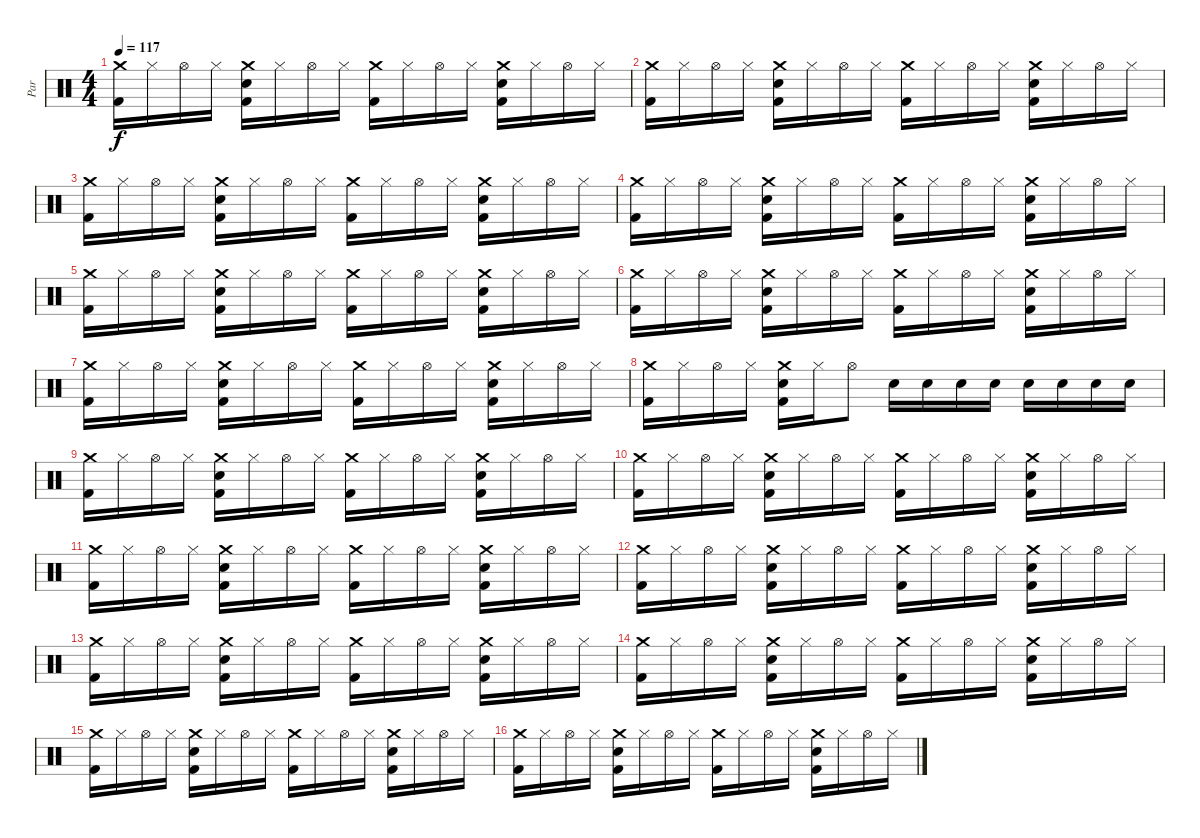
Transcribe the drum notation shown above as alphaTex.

\track ("Par" "Par") {instrument percussion}
\staff {score}
\articulation defaults
\ts (4 4)
\tempo 117
\clef neutral
\ks c
("Crash medium (hit)" "Kick (hit) 2").16{dy f} "Hi-Hat (closed)".16 "Hi-Hat (open)".16 "Hi-Hat (closed)".16 ("Crash medium (hit)" "Snare (hit) 2" "Kick (hit) 2").16 "Hi-Hat (closed)".16 "Hi-Hat (open)".16 "Hi-Hat (closed)".16 ("Crash medium (hit)" "Kick (hit) 2").16 "Hi-Hat (closed)".16 "Hi-Hat (open)".16 "Hi-Hat (closed)".16 ("Crash medium (hit)" "Snare (hit) 2" "Kick (hit) 2").16 "Hi-Hat (closed)".16 "Hi-Hat (open)".16 "Hi-Hat (closed)".16 |
("Crash medium (hit)" "Kick (hit) 2").16 "Hi-Hat (closed)".16 "Hi-Hat (open)".16 "Hi-Hat (closed)".16 ("Crash medium (hit)" "Snare (hit) 2" "Kick (hit) 2").16 "Hi-Hat (closed)".16 "Hi-Hat (open)".16 "Hi-Hat (closed)".16 ("Crash medium (hit)" "Kick (hit) 2").16 "Hi-Hat (closed)".16 "Hi-Hat (open)".16 "Hi-Hat (closed)".16 ("Crash medium (hit)" "Snare (hit) 2" "Kick (hit) 2").16 "Hi-Hat (closed)".16 "Hi-Hat (open)".16 "Hi-Hat (closed)".16 |
("Crash medium (hit)" "Kick (hit) 2").16 "Hi-Hat (closed)".16 "Hi-Hat (open)".16 "Hi-Hat (closed)".16 ("Crash medium (hit)" "Snare (hit) 2" "Kick (hit) 2").16 "Hi-Hat (closed)".16 "Hi-Hat (open)".16 "Hi-Hat (closed)".16 ("Crash medium (hit)" "Kick (hit) 2").16 "Hi-Hat (closed)".16 "Hi-Hat (open)".16 "Hi-Hat (closed)".16 ("Crash medium (hit)" "Snare (hit) 2" "Kick (hit) 2").16 "Hi-Hat (closed)".16 "Hi-Hat (open)".16 "Hi-Hat (closed)".16 |
("Crash medium (hit)" "Kick (hit) 2").16 "Hi-Hat (closed)".16 "Hi-Hat (open)".16 "Hi-Hat (closed)".16 ("Crash medium (hit)" "Snare (hit) 2" "Kick (hit) 2").16 "Hi-Hat (closed)".16 "Hi-Hat (open)".16 "Hi-Hat (closed)".16 ("Crash medium (hit)" "Kick (hit) 2").16 "Hi-Hat (closed)".16 "Hi-Hat (open)".16 "Hi-Hat (closed)".16 ("Crash medium (hit)" "Snare (hit) 2" "Kick (hit) 2").16 "Hi-Hat (closed)".16 "Hi-Hat (open)".16 "Hi-Hat (closed)".16 |
("Crash medium (hit)" "Kick (hit) 2").16 "Hi-Hat (closed)".16 "Hi-Hat (open)".16 "Hi-Hat (closed)".16 ("Crash medium (hit)" "Snare (hit) 2" "Kick (hit) 2").16 "Hi-Hat (closed)".16 "Hi-Hat (open)".16 "Hi-Hat (closed)".16 ("Crash medium (hit)" "Kick (hit) 2").16 "Hi-Hat (closed)".16 "Hi-Hat (open)".16 "Hi-Hat (closed)".16 ("Crash medium (hit)" "Snare (hit) 2" "Kick (hit) 2").16 "Hi-Hat (closed)".16 "Hi-Hat (open)".16 "Hi-Hat (closed)".16 |
("Crash medium (hit)" "Kick (hit) 2").16 "Hi-Hat (closed)".16 "Hi-Hat (open)".16 "Hi-Hat (closed)".16 ("Crash medium (hit)" "Snare (hit) 2" "Kick (hit) 2").16 "Hi-Hat (closed)".16 "Hi-Hat (open)".16 "Hi-Hat (closed)".16 ("Crash medium (hit)" "Kick (hit) 2").16 "Hi-Hat (closed)".16 "Hi-Hat (open)".16 "Hi-Hat (closed)".16 ("Crash medium (hit)" "Snare (hit) 2" "Kick (hit) 2").16 "Hi-Hat (closed)".16 "Hi-Hat (open)".16 "Hi-Hat (closed)".16 |
("Crash medium (hit)" "Kick (hit) 2").16 "Hi-Hat (closed)".16 "Hi-Hat (open)".16 "Hi-Hat (closed)".16 ("Crash medium (hit)" "Snare (hit) 2" "Kick (hit) 2").16 "Hi-Hat (closed)".16 "Hi-Hat (open)".16 "Hi-Hat (closed)".16 ("Crash medium (hit)" "Kick (hit) 2").16 "Hi-Hat (closed)".16 "Hi-Hat (open)".16 "Hi-Hat (closed)".16 ("Crash medium (hit)" "Snare (hit) 2" "Kick (hit) 2").16 "Hi-Hat (closed)".16 "Hi-Hat (open)".16 "Hi-Hat (closed)".16 |
("Crash medium (hit)" "Kick (hit) 2").16 "Hi-Hat (closed)".16 "Hi-Hat (open)".16 "Hi-Hat (closed)".16 ("Crash medium (hit)" "Snare (hit) 2" "Kick (hit) 2").16 "Hi-Hat (closed)".16 "Hi-Hat (open)".8 "Snare (hit) 2".16 "Snare (hit) 2".16 "Snare (hit) 2".16 "Snare (hit) 2".16 "Snare (hit) 2".16 "Snare (hit) 2".16 "Snare (hit) 2".16 "Snare (hit) 2".16 |
("Crash medium (hit)" "Kick (hit) 2").16 "Hi-Hat (closed)".16 "Hi-Hat (open)".16 "Hi-Hat (closed)".16 ("Crash medium (hit)" "Snare (hit) 2" "Kick (hit) 2").16 "Hi-Hat (closed)".16 "Hi-Hat (open)".16 "Hi-Hat (closed)".16 ("Crash medium (hit)" "Kick (hit) 2").16 "Hi-Hat (closed)".16 "Hi-Hat (open)".16 "Hi-Hat (closed)".16 ("Crash medium (hit)" "Snare (hit) 2" "Kick (hit) 2").16 "Hi-Hat (closed)".16 "Hi-Hat (open)".16 "Hi-Hat (closed)".16 |
("Crash medium (hit)" "Kick (hit) 2").16 "Hi-Hat (closed)".16 "Hi-Hat (open)".16 "Hi-Hat (closed)".16 ("Crash medium (hit)" "Snare (hit) 2" "Kick (hit) 2").16 "Hi-Hat (closed)".16 "Hi-Hat (open)".16 "Hi-Hat (closed)".16 ("Crash medium (hit)" "Kick (hit) 2").16 "Hi-Hat (closed)".16 "Hi-Hat (open)".16 "Hi-Hat (closed)".16 ("Crash medium (hit)" "Snare (hit) 2" "Kick (hit) 2").16 "Hi-Hat (closed)".16 "Hi-Hat (open)".16 "Hi-Hat (closed)".16 |
("Crash medium (hit)" "Kick (hit) 2").16 "Hi-Hat (closed)".16 "Hi-Hat (open)".16 "Hi-Hat (closed)".16 ("Crash medium (hit)" "Snare (hit) 2" "Kick (hit) 2").16 "Hi-Hat (closed)".16 "Hi-Hat (open)".16 "Hi-Hat (closed)".16 ("Crash medium (hit)" "Kick (hit) 2").16 "Hi-Hat (closed)".16 "Hi-Hat (open)".16 "Hi-Hat (closed)".16 ("Crash medium (hit)" "Snare (hit) 2" "Kick (hit) 2").16 "Hi-Hat (closed)".16 "Hi-Hat (open)".16 "Hi-Hat (closed)".16 |
("Crash medium (hit)" "Kick (hit) 2").16 "Hi-Hat (closed)".16 "Hi-Hat (open)".16 "Hi-Hat (closed)".16 ("Crash medium (hit)" "Snare (hit) 2" "Kick (hit) 2").16 "Hi-Hat (closed)".16 "Hi-Hat (open)".16 "Hi-Hat (closed)".16 ("Crash medium (hit)" "Kick (hit) 2").16 "Hi-Hat (closed)".16 "Hi-Hat (open)".16 "Hi-Hat (closed)".16 ("Crash medium (hit)" "Snare (hit) 2" "Kick (hit) 2").16 "Hi-Hat (closed)".16 "Hi-Hat (open)".16 "Hi-Hat (closed)".16 |
("Crash medium (hit)" "Kick (hit) 2").16 "Hi-Hat (closed)".16 "Hi-Hat (open)".16 "Hi-Hat (closed)".16 ("Crash medium (hit)" "Snare (hit) 2" "Kick (hit) 2").16 "Hi-Hat (closed)".16 "Hi-Hat (open)".16 "Hi-Hat (closed)".16 ("Crash medium (hit)" "Kick (hit) 2").16 "Hi-Hat (closed)".16 "Hi-Hat (open)".16 "Hi-Hat (closed)".16 ("Crash medium (hit)" "Snare (hit) 2" "Kick (hit) 2").16 "Hi-Hat (closed)".16 "Hi-Hat (open)".16 "Hi-Hat (closed)".16 |
("Crash medium (hit)" "Kick (hit) 2").16 "Hi-Hat (closed)".16 "Hi-Hat (open)".16 "Hi-Hat (closed)".16 ("Crash medium (hit)" "Snare (hit) 2" "Kick (hit) 2").16 "Hi-Hat (closed)".16 "Hi-Hat (open)".16 "Hi-Hat (closed)".16 ("Crash medium (hit)" "Kick (hit) 2").16 "Hi-Hat (closed)".16 "Hi-Hat (open)".16 "Hi-Hat (closed)".16 ("Crash medium (hit)" "Snare (hit) 2" "Kick (hit) 2").16 "Hi-Hat (closed)".16 "Hi-Hat (open)".16 "Hi-Hat (closed)".16 |
("Crash medium (hit)" "Kick (hit) 2").16 "Hi-Hat (closed)".16 "Hi-Hat (open)".16 "Hi-Hat (closed)".16 ("Crash medium (hit)" "Snare (hit) 2" "Kick (hit) 2").16 "Hi-Hat (closed)".16 "Hi-Hat (open)".16 "Hi-Hat (closed)".16 ("Crash medium (hit)" "Kick (hit) 2").16 "Hi-Hat (closed)".16 "Hi-Hat (open)".16 "Hi-Hat (closed)".16 ("Crash medium (hit)" "Snare (hit) 2" "Kick (hit) 2").16 "Hi-Hat (closed)".16 "Hi-Hat (open)".16 "Hi-Hat (closed)".16 |
("Crash medium (hit)" "Kick (hit) 2").16 "Hi-Hat (closed)".16 "Hi-Hat (open)".16 "Hi-Hat (closed)".16 ("Crash medium (hit)" "Snare (hit) 2" "Kick (hit) 2").16 "Hi-Hat (closed)".16 "Hi-Hat (open)".16 "Hi-Hat (closed)".16 ("Crash medium (hit)" "Kick (hit) 2").16 "Hi-Hat (closed)".16 "Hi-Hat (open)".16 "Hi-Hat (closed)".16 ("Crash medium (hit)" "Snare (hit) 2" "Kick (hit) 2").16 "Hi-Hat (closed)".16 "Hi-Hat (open)".16 "Hi-Hat (closed)".16
